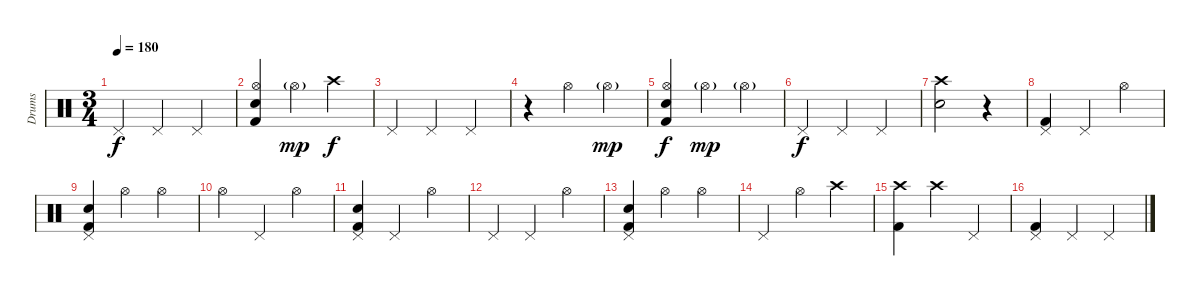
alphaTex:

\track ("Drums" "Drums") {instrument percussion}
\staff {score}
\articulation defaults
\ts (3 4)
\tempo 180
\clef neutral
\ks c "Pedal Hi-Hat (hit)".4{dy f} "Pedal Hi-Hat (hit)".4 "Pedal Hi-Hat (hit)".4
|
("Kick (hit) 2" "Hi-Hat (open)" "Electric Snare (hit)").4 "Hi-Hat (open)"{g}.4{dy mp} "Crash high (hit)".4{dy f} |
"Pedal Hi-Hat (hit)".4 "Pedal Hi-Hat (hit)".4 "Pedal Hi-Hat (hit)".4 |
r.4 "Hi-Hat (open)".4 "Hi-Hat (open)"{g}.4{dy mp} |
("Kick (hit) 2" "Hi-Hat (open)" "Electric Snare (hit)").4{dy f} "Hi-Hat (open)"{g}.4{dy mp} "Hi-Hat (open)"{g}.4 |
"Pedal Hi-Hat (hit)".4{dy f} "Pedal Hi-Hat (hit)".4 "Pedal Hi-Hat (hit)".4 |
("Crash high (hit)" "Electric Snare (hit)").2 r.4 |
("Pedal Hi-Hat (hit)" "Kick (hit) 2").4 "Pedal Hi-Hat (hit)".4 "Hi-Hat (open)".4 |
("Electric Snare (hit)" "Pedal Hi-Hat (hit)" "Kick (hit) 2").4 "Hi-Hat (open)".4 "Hi-Hat (open)".4 |
"Hi-Hat (open)".4 "Pedal Hi-Hat (hit)".4 "Hi-Hat (open)".4 |
("Electric Snare (hit)" "Pedal Hi-Hat (hit)" "Kick (hit) 2").4 "Pedal Hi-Hat (hit)".4 "Hi-Hat (open)".4 |
"Pedal Hi-Hat (hit)".4 "Pedal Hi-Hat (hit)".4 "Hi-Hat (open)".4 |
("Electric Snare (hit)" "Pedal Hi-Hat (hit)" "Kick (hit) 2").4 "Hi-Hat (open)".4 "Hi-Hat (open)".4 |
"Pedal Hi-Hat (hit)".4 "Hi-Hat (open)".4 "Crash high (hit)".4 |
("Crash high (hit)" "Kick (hit) 2").4 "Crash high (hit)".4 "Pedal Hi-Hat (hit)".4 |
("Kick (hit) 2" "Pedal Hi-Hat (hit)").4 "Pedal Hi-Hat (hit)".4 "Pedal Hi-Hat (hit)".4
